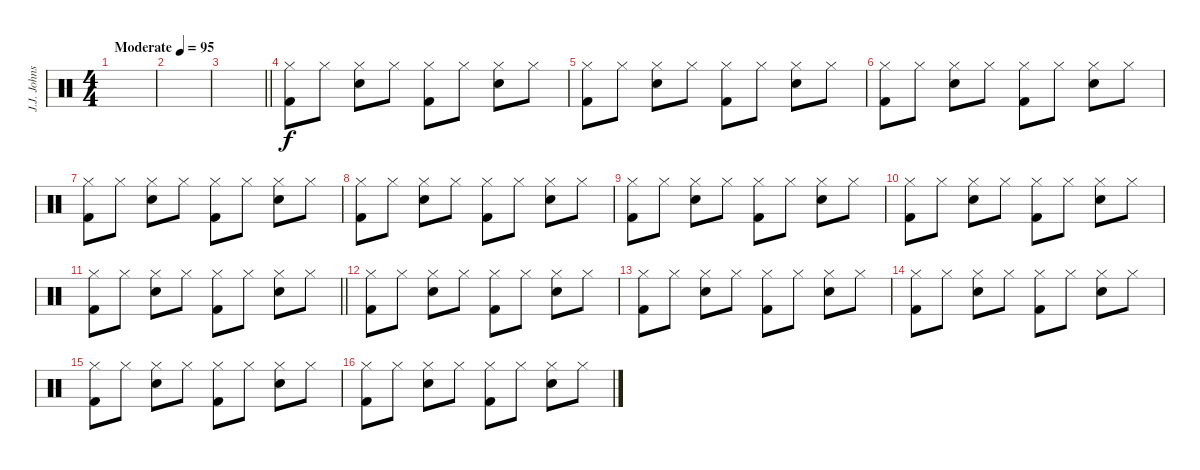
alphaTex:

\track ("J.J. Johnson" "J.J. Johns") {instrument percussion}
\staff {score}
\articulation defaults
\ts (4 4)
\tempo (95 "Moderate")
\clef neutral
\ks c
|
|
\barLineRight lightlight
|
("Hi-Hat (closed)" "Kick (hit) 2").8 "Hi-Hat (closed)".8 ("Hi-Hat (closed)" "Electric Snare (hit)").8 "Hi-Hat (closed)".8 ("Hi-Hat (closed)" "Kick (hit) 2").8 "Hi-Hat (closed)".8 ("Hi-Hat (closed)" "Electric Snare (hit)").8 "Hi-Hat (closed)".8 |
("Hi-Hat (closed)" "Kick (hit) 2").8 "Hi-Hat (closed)".8 ("Hi-Hat (closed)" "Electric Snare (hit)").8 "Hi-Hat (closed)".8 ("Hi-Hat (closed)" "Kick (hit) 2").8 "Hi-Hat (closed)".8 ("Hi-Hat (closed)" "Electric Snare (hit)").8 "Hi-Hat (closed)".8 |
("Hi-Hat (closed)" "Kick (hit) 2").8 "Hi-Hat (closed)".8 ("Hi-Hat (closed)" "Electric Snare (hit)").8 "Hi-Hat (closed)".8 ("Hi-Hat (closed)" "Kick (hit) 2").8 "Hi-Hat (closed)".8 ("Hi-Hat (closed)" "Electric Snare (hit)").8 "Hi-Hat (closed)".8 |
("Hi-Hat (closed)" "Kick (hit) 2").8 "Hi-Hat (closed)".8 ("Hi-Hat (closed)" "Electric Snare (hit)").8 "Hi-Hat (closed)".8 ("Hi-Hat (closed)" "Kick (hit) 2").8 "Hi-Hat (closed)".8 ("Hi-Hat (closed)" "Electric Snare (hit)").8 "Hi-Hat (closed)".8 |
("Hi-Hat (closed)" "Kick (hit) 2").8 "Hi-Hat (closed)".8 ("Hi-Hat (closed)" "Electric Snare (hit)").8 "Hi-Hat (closed)".8 ("Hi-Hat (closed)" "Kick (hit) 2").8 "Hi-Hat (closed)".8 ("Hi-Hat (closed)" "Electric Snare (hit)").8 "Hi-Hat (closed)".8 |
("Hi-Hat (closed)" "Kick (hit) 2").8 "Hi-Hat (closed)".8 ("Hi-Hat (closed)" "Electric Snare (hit)").8 "Hi-Hat (closed)".8 ("Hi-Hat (closed)" "Kick (hit) 2").8 "Hi-Hat (closed)".8 ("Hi-Hat (closed)" "Electric Snare (hit)").8 "Hi-Hat (closed)".8 |
("Hi-Hat (closed)" "Kick (hit) 2").8 "Hi-Hat (closed)".8 ("Hi-Hat (closed)" "Electric Snare (hit)").8 "Hi-Hat (closed)".8 ("Hi-Hat (closed)" "Kick (hit) 2").8 "Hi-Hat (closed)".8 ("Hi-Hat (closed)" "Electric Snare (hit)").8 "Hi-Hat (closed)".8 |
\barLineRight lightlight
("Hi-Hat (closed)" "Kick (hit) 2").8 "Hi-Hat (closed)".8 ("Hi-Hat (closed)" "Electric Snare (hit)").8 "Hi-Hat (closed)".8 ("Hi-Hat (closed)" "Kick (hit) 2").8 "Hi-Hat (closed)".8 ("Hi-Hat (closed)" "Electric Snare (hit)").8 "Hi-Hat (closed)".8 |
("Hi-Hat (closed)" "Kick (hit) 2").8 "Hi-Hat (closed)".8 ("Hi-Hat (closed)" "Electric Snare (hit)").8 "Hi-Hat (closed)".8 ("Hi-Hat (closed)" "Kick (hit) 2").8 "Hi-Hat (closed)".8 ("Hi-Hat (closed)" "Electric Snare (hit)").8 "Hi-Hat (closed)".8 |
("Hi-Hat (closed)" "Kick (hit) 2").8 "Hi-Hat (closed)".8 ("Hi-Hat (closed)" "Electric Snare (hit)").8 "Hi-Hat (closed)".8 ("Hi-Hat (closed)" "Kick (hit) 2").8 "Hi-Hat (closed)".8 ("Hi-Hat (closed)" "Electric Snare (hit)").8 "Hi-Hat (closed)".8 |
("Hi-Hat (closed)" "Kick (hit) 2").8 "Hi-Hat (closed)".8 ("Hi-Hat (closed)" "Electric Snare (hit)").8 "Hi-Hat (closed)".8 ("Hi-Hat (closed)" "Kick (hit) 2").8 "Hi-Hat (closed)".8 ("Hi-Hat (closed)" "Electric Snare (hit)").8 "Hi-Hat (closed)".8 |
("Hi-Hat (closed)" "Kick (hit) 2").8 "Hi-Hat (closed)".8 ("Hi-Hat (closed)" "Electric Snare (hit)").8 "Hi-Hat (closed)".8 ("Hi-Hat (closed)" "Kick (hit) 2").8 "Hi-Hat (closed)".8 ("Hi-Hat (closed)" "Electric Snare (hit)").8 "Hi-Hat (closed)".8 |
("Hi-Hat (closed)" "Kick (hit) 2").8 "Hi-Hat (closed)".8 ("Hi-Hat (closed)" "Electric Snare (hit)").8 "Hi-Hat (closed)".8 ("Hi-Hat (closed)" "Kick (hit) 2").8 "Hi-Hat (closed)".8 ("Hi-Hat (closed)" "Electric Snare (hit)").8 "Hi-Hat (closed)".8
